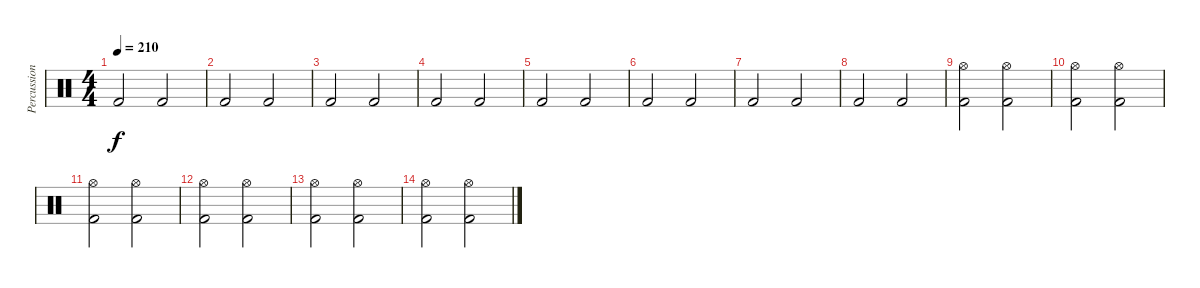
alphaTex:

\track ("Percussion" "Percussion") {instrument percussion}
\staff {score}
\articulation defaults
\ts (4 4)
\tempo 210
\clef neutral
\ks c "Kick (hit) 2".2{dy f} "Kick (hit) 2".2
|
"Kick (hit) 2".2 "Kick (hit) 2".2 |
"Kick (hit) 2".2 "Kick (hit) 2".2 |
"Kick (hit) 2".2 "Kick (hit) 2".2 |
"Kick (hit) 2".2 "Kick (hit) 2".2 |
"Kick (hit) 2".2 "Kick (hit) 2".2 |
"Kick (hit) 2".2 "Kick (hit) 2".2 |
"Kick (hit) 2".2 "Kick (hit) 2".2 |
("Hi-Hat (open)" "Kick (hit) 2").2 ("Hi-Hat (open)" "Kick (hit) 2").2 |
("Hi-Hat (open)" "Kick (hit) 2").2 ("Hi-Hat (open)" "Kick (hit) 2").2 |
("Hi-Hat (open)" "Kick (hit) 2").2 ("Hi-Hat (open)" "Kick (hit) 2").2 |
("Hi-Hat (open)" "Kick (hit) 2").2 ("Hi-Hat (open)" "Kick (hit) 2").2 |
("Hi-Hat (open)" "Kick (hit) 2").2 ("Hi-Hat (open)" "Kick (hit) 2").2 |
("Hi-Hat (open)" "Kick (hit) 2").2 ("Hi-Hat (open)" "Kick (hit) 2").2
